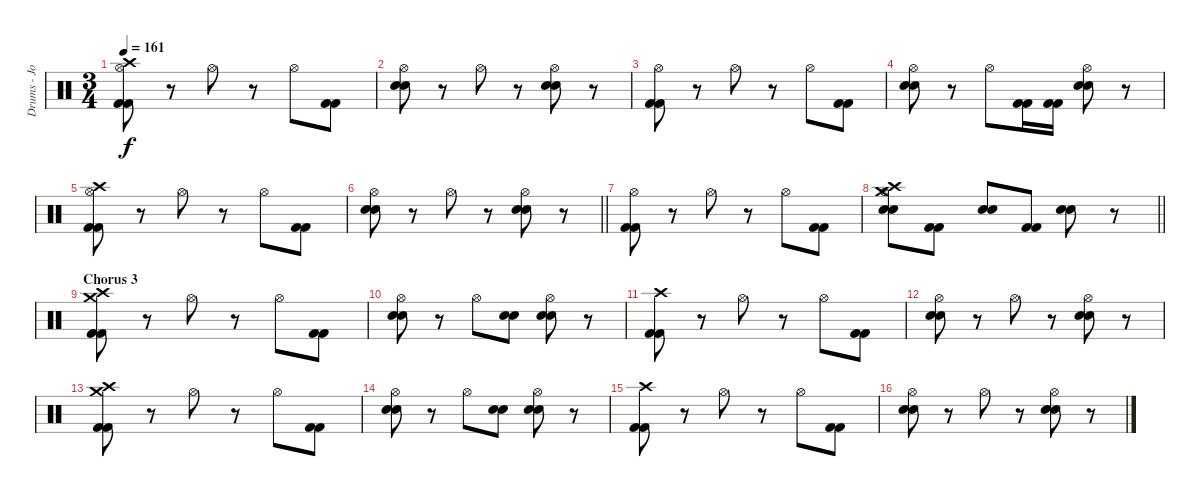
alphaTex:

\track ("Drums - Jon Wilkes" "Drums - Jo") {instrument percussion}
\staff {score}
\articulation defaults
\ts (3 4)
\tempo 161
\clef neutral
\ks c
("Crash high (hit)" "Hi-Hat (open)" "Kick (hit) 2" "Kick (hit) 2").8{dy f} r.8 "Hi-Hat (open)".8 r.8 "Hi-Hat (open)".8 ("Kick (hit) 2" "Kick (hit) 2").8 |
("Hi-Hat (open)" "Electric Snare (hit)" "Electric Snare (hit)").8 r.8 "Hi-Hat (open)".8 r.8 ("Hi-Hat (open)" "Electric Snare (hit)" "Electric Snare (hit)").8 r.8 |
("Hi-Hat (open)" "Kick (hit) 2" "Kick (hit) 2").8 r.8 "Hi-Hat (open)".8 r.8 "Hi-Hat (open)".8 ("Kick (hit) 2" "Kick (hit) 2").8 |
("Hi-Hat (open)" "Electric Snare (hit)" "Electric Snare (hit)").8 r.8 "Hi-Hat (open)".8 ("Kick (hit) 2" "Kick (hit) 2").16 ("Kick (hit) 2" "Kick (hit) 2").16 ("Hi-Hat (open)" "Electric Snare (hit)" "Electric Snare (hit)").8 r.8 |
("Crash high (hit)" "Hi-Hat (open)" "Kick (hit) 2" "Kick (hit) 2").8 r.8 "Hi-Hat (open)".8 r.8 "Hi-Hat (open)".8 ("Kick (hit) 2" "Kick (hit) 2").8 |
\barLineRight lightlight
("Hi-Hat (open)" "Electric Snare (hit)" "Electric Snare (hit)").8 r.8 "Hi-Hat (open)".8 r.8 ("Hi-Hat (open)" "Electric Snare (hit)" "Electric Snare (hit)").8 r.8 |
("Hi-Hat (open)" "Kick (hit) 2" "Kick (hit) 2").8 r.8 "Hi-Hat (open)".8 r.8 "Hi-Hat (open)".8 ("Kick (hit) 2" "Kick (hit) 2").8 |
\barLineRight lightlight
("Crash medium (hit)" "Hi-Hat (open)" "Electric Snare (hit)" "Electric Snare (hit)" "Crash high (hit)").8 ("Kick (hit) 2" "Kick (hit) 2").8 ("Electric Snare (hit)" "Electric Snare (hit)").8 ("Kick (hit) 2" "Kick (hit) 2").8 ("Electric Snare (hit)" "Electric Snare (hit)").8 r.8 |
\section ("" "Chorus 3")
("Crash medium (hit)" "Crash high (hit)" "Kick (hit) 2" "Kick (hit) 2").8 r.8 "Hi-Hat (open)".8 r.8 "Hi-Hat (open)".8 ("Kick (hit) 2" "Kick (hit) 2").8 |
("Hi-Hat (open)" "Electric Snare (hit)" "Electric Snare (hit)").8 r.8 "Hi-Hat (open)".8 ("Electric Snare (hit)" "Electric Snare (hit)").8 ("Hi-Hat (open)" "Electric Snare (hit)" "Electric Snare (hit)").8 r.8 |
("Crash high (hit)" "Kick (hit) 2" "Kick (hit) 2").8 r.8 "Hi-Hat (open)".8 r.8 "Hi-Hat (open)".8 ("Kick (hit) 2" "Kick (hit) 2").8 |
("Hi-Hat (open)" "Electric Snare (hit)" "Electric Snare (hit)").8 r.8 "Hi-Hat (open)".8 r.8 ("Hi-Hat (open)" "Electric Snare (hit)" "Electric Snare (hit)").8 r.8 |
("Crash medium (hit)" "Crash high (hit)" "Kick (hit) 2" "Kick (hit) 2").8 r.8 "Hi-Hat (open)".8 r.8 "Hi-Hat (open)".8 ("Kick (hit) 2" "Kick (hit) 2").8 |
("Hi-Hat (open)" "Electric Snare (hit)" "Electric Snare (hit)").8 r.8 "Hi-Hat (open)".8 ("Electric Snare (hit)" "Electric Snare (hit)").8 ("Hi-Hat (open)" "Electric Snare (hit)" "Electric Snare (hit)").8 r.8 |
("Crash high (hit)" "Kick (hit) 2" "Kick (hit) 2").8 r.8 "Hi-Hat (open)".8 r.8 "Hi-Hat (open)".8 ("Kick (hit) 2" "Kick (hit) 2").8 |
("Hi-Hat (open)" "Electric Snare (hit)" "Electric Snare (hit)").8 r.8 "Hi-Hat (open)".8 r.8 ("Hi-Hat (open)" "Electric Snare (hit)" "Electric Snare (hit)").8 r.8
